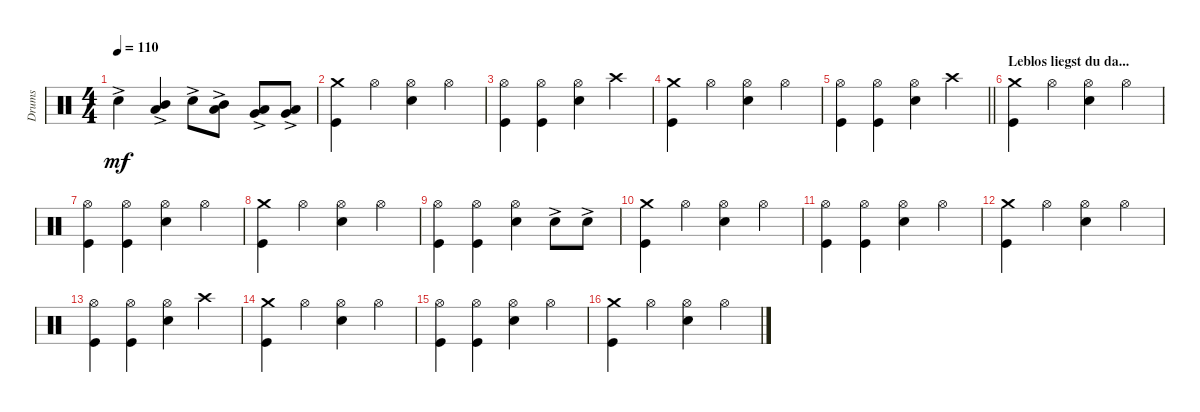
\track ("Drums" "Drums") {instrument percussion}
\staff {score}
\articulation defaults
\ts (4 4)
\tempo 110
\clef neutral
\ks c "Snare (hit) 2"{ac}.4{dy mf}
("Low Tom (hit)"{ac} "Mid Tom (hit)"{ac}).4 "Snare (hit) 2"{ac}.8 ("Low Tom (hit)"{ac} "Mid Tom (hit)"{ac}).8 ("Low Tom (hit)"{ac} "Very Low Tom (hit)"{ac}).8 ("Very Low Tom (hit)"{ac} "Low Floor Tom (hit)"{ac}).8 |
("Crash medium (hit)" "Kick (hit)").4 "Hi-Hat (open)".4 ("Hi-Hat (open)" "Snare (hit) 2").4 "Hi-Hat (open)".4 |
("Hi-Hat (open)" "Kick (hit)").4 ("Hi-Hat (open)" "Kick (hit)").4 ("Hi-Hat (open)" "Snare (hit) 2").4 "Crash high (hit)".4 |
("Crash medium (hit)" "Kick (hit)").4 "Hi-Hat (open)".4 ("Hi-Hat (open)" "Snare (hit) 2").4 "Hi-Hat (open)".4 |
\barLineRight lightlight
("Hi-Hat (open)" "Kick (hit)").4 ("Hi-Hat (open)" "Kick (hit)").4 ("Hi-Hat (open)" "Snare (hit) 2").4 "Crash high (hit)".4 |
\section ("" "Leblos liegst du da...")
("Crash medium (hit)" "Kick (hit)").4 "Hi-Hat (open)".4 ("Hi-Hat (open)" "Snare (hit) 2").4 "Hi-Hat (open)".4 |
("Hi-Hat (open)" "Kick (hit)").4 ("Hi-Hat (open)" "Kick (hit)").4 ("Hi-Hat (open)" "Snare (hit) 2").4 "Hi-Hat (open)".4 |
("Crash medium (hit)" "Kick (hit)").4 "Hi-Hat (open)".4 ("Hi-Hat (open)" "Snare (hit) 2").4 "Hi-Hat (open)".4 |
("Hi-Hat (open)" "Kick (hit)").4 ("Hi-Hat (open)" "Kick (hit)").4 ("Hi-Hat (open)" "Snare (hit) 2").4 "Snare (hit) 2"{ac}.8 "Snare (hit) 2"{ac}.8 |
("Crash medium (hit)" "Kick (hit)").4 "Hi-Hat (open)".4 ("Hi-Hat (open)" "Snare (hit) 2").4 "Hi-Hat (open)".4 |
("Hi-Hat (open)" "Kick (hit)").4 ("Hi-Hat (open)" "Kick (hit)").4 ("Hi-Hat (open)" "Snare (hit) 2").4 "Hi-Hat (open)".4 |
("Crash medium (hit)" "Kick (hit)").4 "Hi-Hat (open)".4 ("Hi-Hat (open)" "Snare (hit) 2").4 "Hi-Hat (open)".4 |
("Hi-Hat (open)" "Kick (hit)").4 ("Hi-Hat (open)" "Kick (hit)").4 ("Hi-Hat (open)" "Snare (hit) 2").4 "Crash high (hit)".4 |
("Crash medium (hit)" "Kick (hit)").4 "Hi-Hat (open)".4 ("Hi-Hat (open)" "Snare (hit) 2").4 "Hi-Hat (open)".4 |
("Hi-Hat (open)" "Kick (hit)").4 ("Hi-Hat (open)" "Kick (hit)").4 ("Hi-Hat (open)" "Snare (hit) 2").4 "Hi-Hat (open)".4 |
("Crash medium (hit)" "Kick (hit)").4 "Hi-Hat (open)".4 ("Hi-Hat (open)" "Snare (hit) 2").4 "Hi-Hat (open)".4
